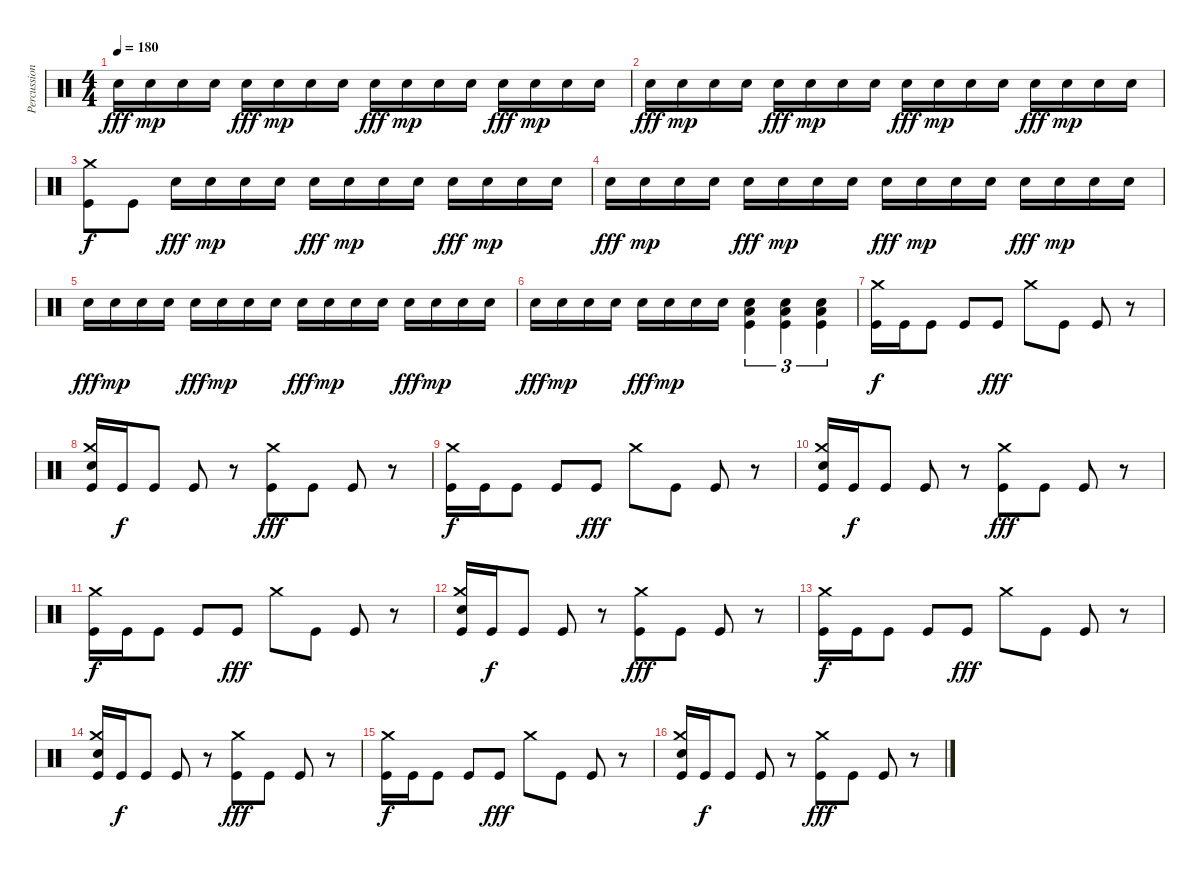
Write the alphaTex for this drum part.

\track ("Percussion" "Percussion") {instrument percussion}
\staff {score}
\articulation defaults
\ts (4 4)
\tempo 180
\clef neutral
\ks c "Electric Snare (hit)".16{dy fff} "Electric Snare (hit)".16{dy mp} "Electric Snare (hit)".16 "Electric Snare (hit)".16 "Electric Snare (hit)".16{dy fff} "Electric Snare (hit)".16{dy mp} "Electric Snare (hit)".16 "Electric Snare (hit)".16 "Electric Snare (hit)".16{dy fff} "Electric Snare (hit)".16{dy mp} "Electric Snare (hit)".16 "Electric Snare (hit)".16 "Electric Snare (hit)".16{dy fff} "Electric Snare (hit)".16{dy mp} "Electric Snare (hit)".16 "Electric Snare (hit)".16
|
"Electric Snare (hit)".16{dy fff} "Electric Snare (hit)".16{dy mp} "Electric Snare (hit)".16 "Electric Snare (hit)".16 "Electric Snare (hit)".16{dy fff} "Electric Snare (hit)".16{dy mp} "Electric Snare (hit)".16 "Electric Snare (hit)".16 "Electric Snare (hit)".16{dy fff} "Electric Snare (hit)".16{dy mp} "Electric Snare (hit)".16 "Electric Snare (hit)".16 "Electric Snare (hit)".16{dy fff} "Electric Snare (hit)".16{dy mp} "Electric Snare (hit)".16 "Electric Snare (hit)".16 |
("Crash medium (hit)" "Kick (hit)").8{dy f} "Kick (hit)".8 "Electric Snare (hit)".16{dy fff} "Electric Snare (hit)".16{dy mp} "Electric Snare (hit)".16 "Electric Snare (hit)".16 "Electric Snare (hit)".16{dy fff} "Electric Snare (hit)".16{dy mp} "Electric Snare (hit)".16 "Electric Snare (hit)".16 "Electric Snare (hit)".16{dy fff} "Electric Snare (hit)".16{dy mp} "Electric Snare (hit)".16 "Electric Snare (hit)".16 |
"Electric Snare (hit)".16{dy fff} "Electric Snare (hit)".16{dy mp} "Electric Snare (hit)".16 "Electric Snare (hit)".16 "Electric Snare (hit)".16{dy fff} "Electric Snare (hit)".16{dy mp} "Electric Snare (hit)".16 "Electric Snare (hit)".16 "Electric Snare (hit)".16{dy fff} "Electric Snare (hit)".16{dy mp} "Electric Snare (hit)".16 "Electric Snare (hit)".16 "Electric Snare (hit)".16{dy fff} "Electric Snare (hit)".16{dy mp} "Electric Snare (hit)".16 "Electric Snare (hit)".16 |
"Electric Snare (hit)".16{dy fff} "Electric Snare (hit)".16{dy mp} "Electric Snare (hit)".16 "Electric Snare (hit)".16 "Electric Snare (hit)".16{dy fff} "Electric Snare (hit)".16{dy mp} "Electric Snare (hit)".16 "Electric Snare (hit)".16 "Electric Snare (hit)".16{dy fff} "Electric Snare (hit)".16{dy mp} "Electric Snare (hit)".16 "Electric Snare (hit)".16 "Electric Snare (hit)".16{dy fff} "Electric Snare (hit)".16{dy mp} "Electric Snare (hit)".16 "Electric Snare (hit)".16 |
"Electric Snare (hit)".16{dy fff} "Electric Snare (hit)".16{dy mp} "Electric Snare (hit)".16 "Electric Snare (hit)".16 "Electric Snare (hit)".16{dy fff} "Electric Snare (hit)".16{dy mp} "Electric Snare (hit)".16 "Electric Snare (hit)".16 ("Low Floor Tom (hit)" "Electric Snare (hit)" "Kick (hit)").4{tu (3 2)} ("Low Floor Tom (hit)" "Electric Snare (hit)" "Kick (hit)").4{tu (3 2)} ("Low Floor Tom (hit)" "Electric Snare (hit)" "Kick (hit)").4{tu (3 2)} |
("Crash medium (hit)" "Kick (hit)").16{dy f} "Kick (hit)".16 "Kick (hit)".8 "Kick (hit)".8 "Kick (hit)".8{dy fff} "Crash medium (hit)".8 "Kick (hit)".8 "Kick (hit)".8 r.8 |
("Crash medium (hit)" "Electric Snare (hit)" "Kick (hit)").16 "Kick (hit)".16{dy f} "Kick (hit)".8 "Kick (hit)".8 r.8 ("Crash medium (hit)" "Kick (hit)").8{dy fff} "Kick (hit)".8 "Kick (hit)".8 r.8 |
("Crash medium (hit)" "Kick (hit)").16{dy f} "Kick (hit)".16 "Kick (hit)".8 "Kick (hit)".8 "Kick (hit)".8{dy fff} "Crash medium (hit)".8 "Kick (hit)".8 "Kick (hit)".8 r.8 |
("Crash medium (hit)" "Electric Snare (hit)" "Kick (hit)").16 "Kick (hit)".16{dy f} "Kick (hit)".8 "Kick (hit)".8 r.8 ("Crash medium (hit)" "Kick (hit)").8{dy fff} "Kick (hit)".8 "Kick (hit)".8 r.8 |
("Crash medium (hit)" "Kick (hit)").16{dy f} "Kick (hit)".16 "Kick (hit)".8 "Kick (hit)".8 "Kick (hit)".8{dy fff} "Crash medium (hit)".8 "Kick (hit)".8 "Kick (hit)".8 r.8 |
("Crash medium (hit)" "Electric Snare (hit)" "Kick (hit)").16 "Kick (hit)".16{dy f} "Kick (hit)".8 "Kick (hit)".8 r.8 ("Crash medium (hit)" "Kick (hit)").8{dy fff} "Kick (hit)".8 "Kick (hit)".8 r.8 |
("Crash medium (hit)" "Kick (hit)").16{dy f} "Kick (hit)".16 "Kick (hit)".8 "Kick (hit)".8 "Kick (hit)".8{dy fff} "Crash medium (hit)".8 "Kick (hit)".8 "Kick (hit)".8 r.8 |
("Crash medium (hit)" "Electric Snare (hit)" "Kick (hit)").16 "Kick (hit)".16{dy f} "Kick (hit)".8 "Kick (hit)".8 r.8 ("Crash medium (hit)" "Kick (hit)").8{dy fff} "Kick (hit)".8 "Kick (hit)".8 r.8 |
("Crash medium (hit)" "Kick (hit)").16{dy f} "Kick (hit)".16 "Kick (hit)".8 "Kick (hit)".8 "Kick (hit)".8{dy fff} "Crash medium (hit)".8 "Kick (hit)".8 "Kick (hit)".8 r.8 |
("Crash medium (hit)" "Electric Snare (hit)" "Kick (hit)").16 "Kick (hit)".16{dy f} "Kick (hit)".8 "Kick (hit)".8 r.8 ("Crash medium (hit)" "Kick (hit)").8{dy fff} "Kick (hit)".8 "Kick (hit)".8 r.8
